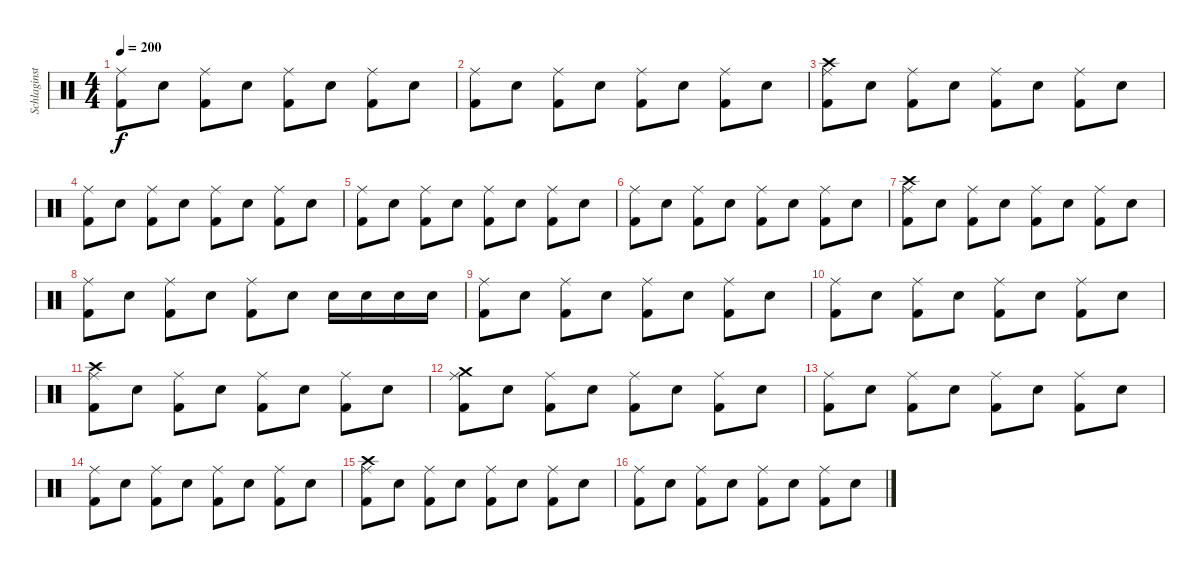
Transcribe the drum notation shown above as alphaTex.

\track ("Schlaginstrumente - Auswahl" "Schlaginst") {instrument percussion}
\staff {score}
\articulation defaults
\ts (4 4)
\tempo 200
\clef neutral
\ks c
("Ride (middle)" "Kick (hit) 2").8{dy f} "Snare (hit) 2".8 ("Ride (middle)" "Kick (hit) 2").8 "Snare (hit) 2".8 ("Ride (middle)" "Kick (hit) 2").8 "Snare (hit) 2".8 ("Ride (middle)" "Kick (hit) 2").8 "Snare (hit) 2".8 |
("Ride (middle)" "Kick (hit) 2").8 "Snare (hit) 2".8 ("Ride (middle)" "Kick (hit) 2").8 "Snare (hit) 2".8 ("Ride (middle)" "Kick (hit) 2").8 "Snare (hit) 2".8 ("Ride (middle)" "Kick (hit) 2").8 "Snare (hit) 2".8 |
("Crash high (hit)" "Ride (middle)" "Kick (hit) 2").8 "Snare (hit) 2".8 ("Ride (middle)" "Kick (hit) 2").8 "Snare (hit) 2".8 ("Ride (middle)" "Kick (hit) 2").8 "Snare (hit) 2".8 ("Ride (middle)" "Kick (hit) 2").8 "Snare (hit) 2".8 |
("Ride (middle)" "Kick (hit) 2").8 "Snare (hit) 2".8 ("Ride (middle)" "Kick (hit) 2").8 "Snare (hit) 2".8 ("Ride (middle)" "Kick (hit) 2").8 "Snare (hit) 2".8 ("Ride (middle)" "Kick (hit) 2").8 "Snare (hit) 2".8 |
("Ride (middle)" "Kick (hit) 2").8 "Snare (hit) 2".8 ("Ride (middle)" "Kick (hit) 2").8 "Snare (hit) 2".8 ("Ride (middle)" "Kick (hit) 2").8 "Snare (hit) 2".8 ("Ride (middle)" "Kick (hit) 2").8 "Snare (hit) 2".8 |
("Ride (middle)" "Kick (hit) 2").8 "Snare (hit) 2".8 ("Ride (middle)" "Kick (hit) 2").8 "Snare (hit) 2".8 ("Ride (middle)" "Kick (hit) 2").8 "Snare (hit) 2".8 ("Ride (middle)" "Kick (hit) 2").8 "Snare (hit) 2".8 |
("Crash high (hit)" "Ride (middle)" "Kick (hit) 2").8 "Snare (hit) 2".8 ("Ride (middle)" "Kick (hit) 2").8 "Snare (hit) 2".8 ("Ride (middle)" "Kick (hit) 2").8 "Snare (hit) 2".8 ("Ride (middle)" "Kick (hit) 2").8 "Snare (hit) 2".8 |
("Ride (middle)" "Kick (hit) 2").8 "Snare (hit) 2".8 ("Ride (middle)" "Kick (hit) 2").8 "Snare (hit) 2".8 ("Ride (middle)" "Kick (hit) 2").8 "Snare (hit) 2".8 "Snare (hit) 2".16 "Snare (hit) 2".16 "Snare (hit) 2".16 "Snare (hit) 2".16 |
("Ride (middle)" "Kick (hit) 2").8 "Snare (hit) 2".8 ("Ride (middle)" "Kick (hit) 2").8 "Snare (hit) 2".8 ("Ride (middle)" "Kick (hit) 2").8 "Snare (hit) 2".8 ("Ride (middle)" "Kick (hit) 2").8 "Snare (hit) 2".8 |
("Ride (middle)" "Kick (hit) 2").8 "Snare (hit) 2".8 ("Ride (middle)" "Kick (hit) 2").8 "Snare (hit) 2".8 ("Ride (middle)" "Kick (hit) 2").8 "Snare (hit) 2".8 ("Ride (middle)" "Kick (hit) 2").8 "Snare (hit) 2".8 |
("Crash high (hit)" "Ride (middle)" "Kick (hit) 2").8 "Snare (hit) 2".8 ("Ride (middle)" "Kick (hit) 2").8 "Snare (hit) 2".8 ("Ride (middle)" "Kick (hit) 2").8 "Snare (hit) 2".8 ("Ride (middle)" "Kick (hit) 2").8 "Snare (hit) 2".8 |
("Crash medium (hit)" "Ride (middle)" "Kick (hit) 2").8 "Snare (hit) 2".8 ("Ride (middle)" "Kick (hit) 2").8 "Snare (hit) 2".8 ("Ride (middle)" "Kick (hit) 2").8 "Snare (hit) 2".8 ("Ride (middle)" "Kick (hit) 2").8 "Snare (hit) 2".8 |
("Ride (middle)" "Kick (hit) 2").8 "Snare (hit) 2".8 ("Ride (middle)" "Kick (hit) 2").8 "Snare (hit) 2".8 ("Ride (middle)" "Kick (hit) 2").8 "Snare (hit) 2".8 ("Ride (middle)" "Kick (hit) 2").8 "Snare (hit) 2".8 |
("Ride (middle)" "Kick (hit) 2").8 "Snare (hit) 2".8 ("Ride (middle)" "Kick (hit) 2").8 "Snare (hit) 2".8 ("Ride (middle)" "Kick (hit) 2").8 "Snare (hit) 2".8 ("Ride (middle)" "Kick (hit) 2").8 "Snare (hit) 2".8 |
("Crash high (hit)" "Ride (middle)" "Kick (hit) 2").8 "Snare (hit) 2".8 ("Ride (middle)" "Kick (hit) 2").8 "Snare (hit) 2".8 ("Ride (middle)" "Kick (hit) 2").8 "Snare (hit) 2".8 ("Ride (middle)" "Kick (hit) 2").8 "Snare (hit) 2".8 |
("Ride (middle)" "Kick (hit) 2").8 "Snare (hit) 2".8 ("Ride (middle)" "Kick (hit) 2").8 "Snare (hit) 2".8 ("Ride (middle)" "Kick (hit) 2").8 "Snare (hit) 2".8 ("Ride (middle)" "Kick (hit) 2").8 "Snare (hit) 2".8
